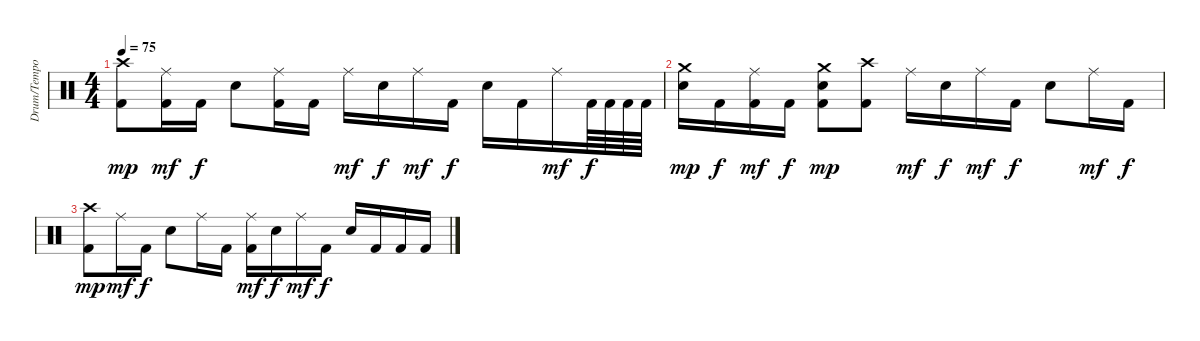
\track ("Drum/Tempo" "Drum/Tempo") {instrument percussion}
\staff {score}
\articulation defaults
\ts (4 4)
\tempo 75
\clef neutral
\ks c
("Kick (hit) 2" "Crash high (hit)").8{dy mp} ("Kick (hit) 2" "Ride (middle)").16{dy mf} "Kick (hit) 2".16{dy f} "Electric Snare (hit)".8 ("Kick (hit) 2" "Ride (middle)").16 "Kick (hit) 2".16 "Ride (middle)".16{dy mf} "Electric Snare (hit)".16{dy f} "Ride (middle)".16{dy mf} "Kick (hit) 2".16{dy f} "Electric Snare (hit)".16 "Kick (hit) 2".16 "Ride (middle)".16{dy mf} "Kick (hit) 2".64{dy f} "Kick (hit) 2".64 "Kick (hit) 2".64 "Kick (hit) 2".64 |
("Electric Snare (hit)" "Crash medium (hit)").16{dy mp} "Kick (hit) 2".16{dy f} ("Kick (hit) 2" "Ride (middle)").16{dy mf} "Kick (hit) 2".16{dy f} ("Kick (hit) 2" "Electric Snare (hit)" "Crash medium (hit)").8{dy mp} ("Kick (hit) 2" "Crash high (hit)").8 "Ride (middle)".16{dy mf} "Electric Snare (hit)".16{dy f} "Ride (middle)".16{dy mf} "Kick (hit) 2".16{dy f} "Electric Snare (hit)".8 "Ride (middle)".16{dy mf} "Kick (hit) 2".16{dy f} |
("Kick (hit) 2" "Crash high (hit)").8{dy mp} "Ride (middle)".16{dy mf} "Kick (hit) 2".16{dy f} "Electric Snare (hit)".8 "Ride (middle)".16 "Kick (hit) 2".16 ("Kick (hit) 2" "Ride (middle)").16{dy mf} "Electric Snare (hit)".16{dy f} "Ride (middle)".16{dy mf} "Kick (hit) 2".16{dy f} "Electric Snare (hit)".16 "Kick (hit) 2".16 "Kick (hit) 2".16 "Kick (hit) 2".16
